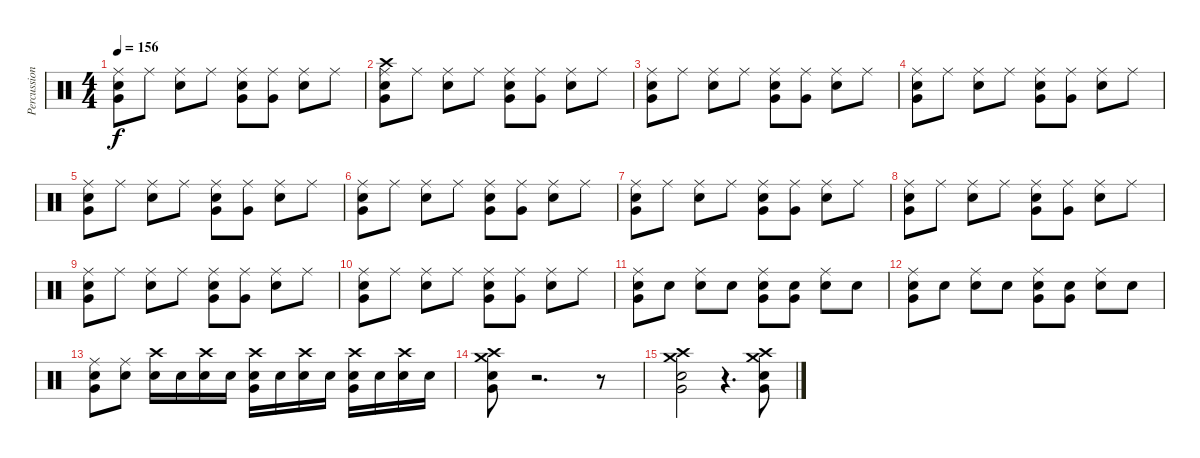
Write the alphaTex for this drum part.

\track ("Percussions" "Percussion") {instrument percussion}
\staff {score}
\articulation defaults
\ts (4 4)
\tempo 156
\clef neutral
\ks c
("Very Low Tom (hit)" "Electric Snare (hit)" "Ride (middle)").8{dy f} "Ride (middle)".8 ("Electric Snare (hit)" "Ride (middle)").8 "Ride (middle)".8 ("Very Low Tom (hit)" "Electric Snare (hit)" "Ride (middle)").8 ("Very Low Tom (hit)" "Ride (middle)").8 ("Electric Snare (hit)" "Ride (middle)").8 "Ride (middle)".8 |
("Very Low Tom (hit)" "Crash high (hit)" "Electric Snare (hit)" "Ride (middle)").8 "Ride (middle)".8 ("Electric Snare (hit)" "Ride (middle)").8 "Ride (middle)".8 ("Very Low Tom (hit)" "Electric Snare (hit)" "Ride (middle)").8 ("Very Low Tom (hit)" "Ride (middle)").8 ("Electric Snare (hit)" "Ride (middle)").8 "Ride (middle)".8 |
("Very Low Tom (hit)" "Electric Snare (hit)" "Ride (middle)").8 "Ride (middle)".8 ("Electric Snare (hit)" "Ride (middle)").8 "Ride (middle)".8 ("Very Low Tom (hit)" "Electric Snare (hit)" "Ride (middle)").8 ("Very Low Tom (hit)" "Ride (middle)").8 ("Electric Snare (hit)" "Ride (middle)").8 "Ride (middle)".8 |
("Very Low Tom (hit)" "Electric Snare (hit)" "Ride (middle)").8 "Ride (middle)".8 ("Electric Snare (hit)" "Ride (middle)").8 "Ride (middle)".8 ("Very Low Tom (hit)" "Electric Snare (hit)" "Ride (middle)").8 ("Very Low Tom (hit)" "Ride (middle)").8 ("Electric Snare (hit)" "Ride (middle)").8 "Ride (middle)".8 |
("Very Low Tom (hit)" "Electric Snare (hit)" "Ride (middle)").8 "Ride (middle)".8 ("Electric Snare (hit)" "Ride (middle)").8 "Ride (middle)".8 ("Very Low Tom (hit)" "Electric Snare (hit)" "Ride (middle)").8 ("Very Low Tom (hit)" "Ride (middle)").8 ("Electric Snare (hit)" "Ride (middle)").8 "Ride (middle)".8 |
("Very Low Tom (hit)" "Electric Snare (hit)" "Ride (middle)").8 "Ride (middle)".8 ("Electric Snare (hit)" "Ride (middle)").8 "Ride (middle)".8 ("Very Low Tom (hit)" "Electric Snare (hit)" "Ride (middle)").8 ("Very Low Tom (hit)" "Ride (middle)").8 ("Electric Snare (hit)" "Ride (middle)").8 "Ride (middle)".8 |
("Very Low Tom (hit)" "Electric Snare (hit)" "Ride (middle)").8 "Ride (middle)".8 ("Electric Snare (hit)" "Ride (middle)").8 "Ride (middle)".8 ("Very Low Tom (hit)" "Electric Snare (hit)" "Ride (middle)").8 ("Very Low Tom (hit)" "Ride (middle)").8 ("Electric Snare (hit)" "Ride (middle)").8 "Ride (middle)".8 |
("Very Low Tom (hit)" "Electric Snare (hit)" "Ride (middle)").8 "Ride (middle)".8 ("Electric Snare (hit)" "Ride (middle)").8 "Ride (middle)".8 ("Very Low Tom (hit)" "Electric Snare (hit)" "Ride (middle)").8 ("Very Low Tom (hit)" "Ride (middle)").8 ("Electric Snare (hit)" "Ride (middle)").8 "Ride (middle)".8 |
("Very Low Tom (hit)" "Electric Snare (hit)" "Ride (middle)").8 "Ride (middle)".8 ("Electric Snare (hit)" "Ride (middle)").8 "Ride (middle)".8 ("Very Low Tom (hit)" "Electric Snare (hit)" "Ride (middle)").8 ("Very Low Tom (hit)" "Ride (middle)").8 ("Electric Snare (hit)" "Ride (middle)").8 "Ride (middle)".8 |
("Very Low Tom (hit)" "Electric Snare (hit)" "Ride (middle)").8 "Ride (middle)".8 ("Electric Snare (hit)" "Ride (middle)").8 "Ride (middle)".8 ("Very Low Tom (hit)" "Electric Snare (hit)" "Ride (middle)").8 ("Very Low Tom (hit)" "Ride (middle)").8 ("Electric Snare (hit)" "Ride (middle)").8 "Ride (middle)".8 |
("Very Low Tom (hit)" "Electric Snare (hit)" "Ride (middle)").8 "Electric Snare (hit)".8 ("Electric Snare (hit)" "Ride (middle)").8 "Electric Snare (hit)".8 ("Very Low Tom (hit)" "Electric Snare (hit)" "Ride (middle)").8 ("Very Low Tom (hit)" "Electric Snare (hit)").8 ("Electric Snare (hit)" "Ride (middle)").8 "Electric Snare (hit)".8 |
("Very Low Tom (hit)" "Electric Snare (hit)" "Ride (middle)").8 "Electric Snare (hit)".8 ("Electric Snare (hit)" "Ride (middle)").8 "Electric Snare (hit)".8 ("Very Low Tom (hit)" "Electric Snare (hit)" "Ride (middle)").8 ("Very Low Tom (hit)" "Electric Snare (hit)").8 ("Electric Snare (hit)" "Ride (middle)").8 "Electric Snare (hit)".8 |
("Very Low Tom (hit)" "Electric Snare (hit)" "Ride (middle)").8 ("Electric Snare (hit)" "Ride (middle)").8 ("Electric Snare (hit)" "Crash high (hit)").16 "Electric Snare (hit)".16 ("Electric Snare (hit)" "Crash high (hit)").16 "Electric Snare (hit)".16 ("Very Low Tom (hit)" "Electric Snare (hit)" "Crash high (hit)").16 "Electric Snare (hit)".16 ("Electric Snare (hit)" "Crash high (hit)").16 "Electric Snare (hit)".16 ("Very Low Tom (hit)" "Electric Snare (hit)" "Crash high (hit)").16 "Electric Snare (hit)".16 ("Electric Snare (hit)" "Crash high (hit)").16 "Electric Snare (hit)".16 |
("Very Low Tom (hit)" "Crash high (hit)" "Electric Snare (hit)" "Crash medium (hit)").8 r.2{d} r.8 |
("Very Low Tom (hit)" "Crash high (hit)" "Crash medium (hit)" "Electric Snare (hit)").2 r.4{d} ("Very Low Tom (hit)" "Crash high (hit)" "Crash medium (hit)" "Electric Snare (hit)").8
